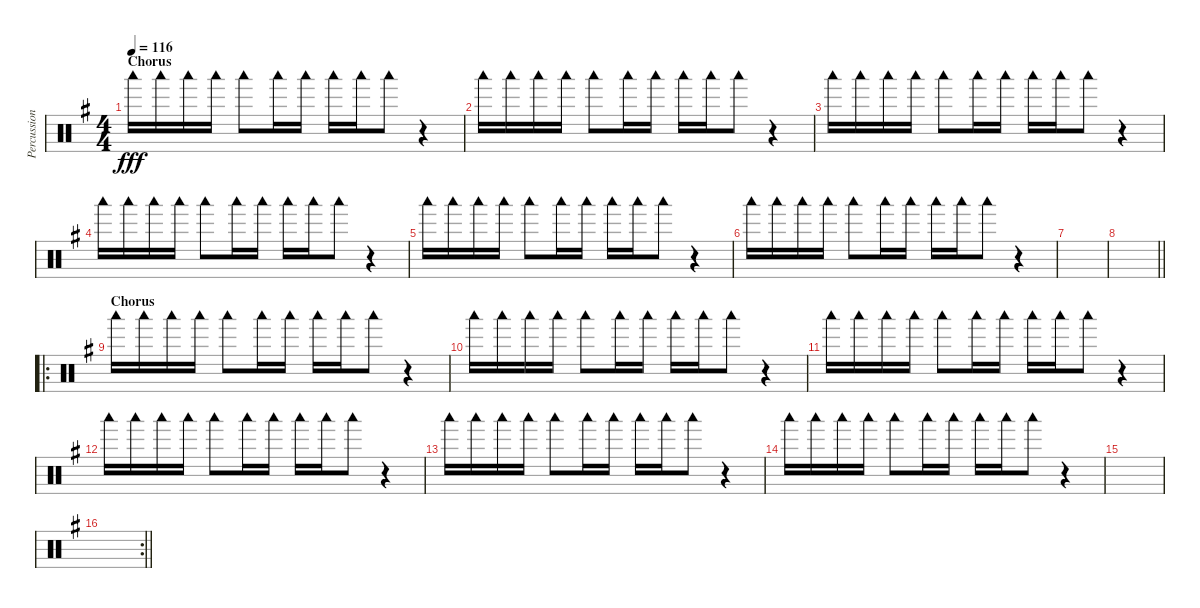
\track ("Percussion" "Percussion") {instrument percussion}
\staff {score}
\articulation defaults
\ts (4 4)
\section ("" "Chorus")
\tempo 116
\clef neutral
\ks g "Woodblock low (hit)".16{dy fff} "Woodblock low (hit)".16 "Woodblock low (hit)".16 "Woodblock low (hit)".16 "Woodblock low (hit)".8 "Woodblock low (hit)".16 "Woodblock low (hit)".16 "Woodblock low (hit)".16 "Woodblock low (hit)".16 "Woodblock low (hit)".8
r.4 |
"Woodblock low (hit)".16 "Woodblock low (hit)".16 "Woodblock low (hit)".16 "Woodblock low (hit)".16 "Woodblock low (hit)".8 "Woodblock low (hit)".16 "Woodblock low (hit)".16 "Woodblock low (hit)".16 "Woodblock low (hit)".16 "Woodblock low (hit)".8 r.4 |
"Woodblock low (hit)".16 "Woodblock low (hit)".16 "Woodblock low (hit)".16 "Woodblock low (hit)".16 "Woodblock low (hit)".8 "Woodblock low (hit)".16 "Woodblock low (hit)".16 "Woodblock low (hit)".16 "Woodblock low (hit)".16 "Woodblock low (hit)".8 r.4 |
"Woodblock low (hit)".16 "Woodblock low (hit)".16 "Woodblock low (hit)".16 "Woodblock low (hit)".16 "Woodblock low (hit)".8 "Woodblock low (hit)".16 "Woodblock low (hit)".16 "Woodblock low (hit)".16 "Woodblock low (hit)".16 "Woodblock low (hit)".8 r.4 |
"Woodblock low (hit)".16 "Woodblock low (hit)".16 "Woodblock low (hit)".16 "Woodblock low (hit)".16 "Woodblock low (hit)".8 "Woodblock low (hit)".16 "Woodblock low (hit)".16 "Woodblock low (hit)".16 "Woodblock low (hit)".16 "Woodblock low (hit)".8 r.4 |
"Woodblock low (hit)".16 "Woodblock low (hit)".16 "Woodblock low (hit)".16 "Woodblock low (hit)".16 "Woodblock low (hit)".8 "Woodblock low (hit)".16 "Woodblock low (hit)".16 "Woodblock low (hit)".16 "Woodblock low (hit)".16 "Woodblock low (hit)".8 r.4 |
|
\barLineRight lightlight
|
\ro
\section ("" "Chorus")
"Woodblock low (hit)".16 "Woodblock low (hit)".16 "Woodblock low (hit)".16 "Woodblock low (hit)".16 "Woodblock low (hit)".8 "Woodblock low (hit)".16 "Woodblock low (hit)".16 "Woodblock low (hit)".16 "Woodblock low (hit)".16 "Woodblock low (hit)".8 r.4 |
"Woodblock low (hit)".16 "Woodblock low (hit)".16 "Woodblock low (hit)".16 "Woodblock low (hit)".16 "Woodblock low (hit)".8 "Woodblock low (hit)".16 "Woodblock low (hit)".16 "Woodblock low (hit)".16 "Woodblock low (hit)".16 "Woodblock low (hit)".8 r.4 |
"Woodblock low (hit)".16 "Woodblock low (hit)".16 "Woodblock low (hit)".16 "Woodblock low (hit)".16 "Woodblock low (hit)".8 "Woodblock low (hit)".16 "Woodblock low (hit)".16 "Woodblock low (hit)".16 "Woodblock low (hit)".16 "Woodblock low (hit)".8 r.4 |
"Woodblock low (hit)".16 "Woodblock low (hit)".16 "Woodblock low (hit)".16 "Woodblock low (hit)".16 "Woodblock low (hit)".8 "Woodblock low (hit)".16 "Woodblock low (hit)".16 "Woodblock low (hit)".16 "Woodblock low (hit)".16 "Woodblock low (hit)".8 r.4 |
"Woodblock low (hit)".16 "Woodblock low (hit)".16 "Woodblock low (hit)".16 "Woodblock low (hit)".16 "Woodblock low (hit)".8 "Woodblock low (hit)".16 "Woodblock low (hit)".16 "Woodblock low (hit)".16 "Woodblock low (hit)".16 "Woodblock low (hit)".8 r.4 |
"Woodblock low (hit)".16 "Woodblock low (hit)".16 "Woodblock low (hit)".16 "Woodblock low (hit)".16 "Woodblock low (hit)".8 "Woodblock low (hit)".16 "Woodblock low (hit)".16 "Woodblock low (hit)".16 "Woodblock low (hit)".16 "Woodblock low (hit)".8 r.4 |
|
\rc 2
\barLineRight lightlight
